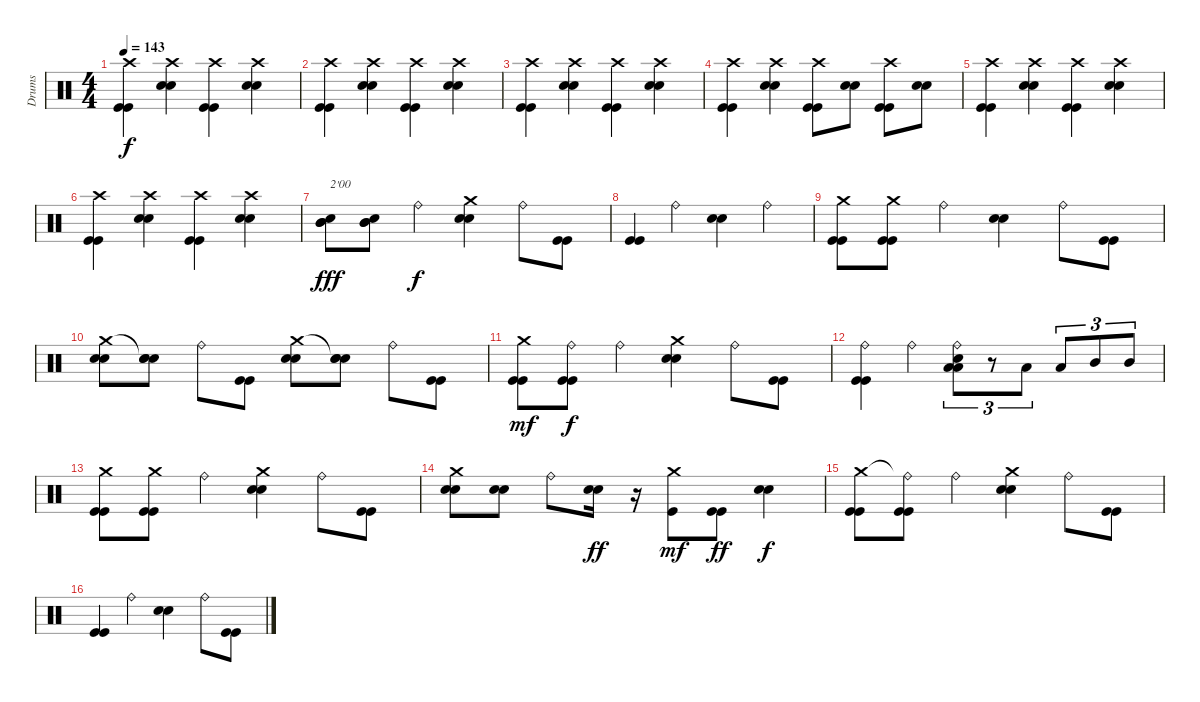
\track ("Drums" "Drums") {instrument percussion}
\staff {score}
\articulation defaults
\ts (4 4)
\tempo 143
\clef neutral
\ks c
("Crash high (hit)" "Kick (hit)" "Kick (hit)").4{dy f} ("Crash high (hit)" "Electric Snare (hit)" "Electric Snare (hit)").4 ("Crash high (hit)" "Kick (hit)" "Kick (hit)").4 ("Crash high (hit)" "Electric Snare (hit)" "Electric Snare (hit)").4 |
("Crash high (hit)" "Kick (hit)" "Kick (hit)").4 ("Crash high (hit)" "Electric Snare (hit)" "Electric Snare (hit)").4 ("Crash high (hit)" "Kick (hit)" "Kick (hit)").4 ("Crash high (hit)" "Electric Snare (hit)" "Electric Snare (hit)").4 |
("Crash high (hit)" "Kick (hit)" "Kick (hit)").4 ("Crash high (hit)" "Electric Snare (hit)" "Electric Snare (hit)").4 ("Crash high (hit)" "Kick (hit)" "Kick (hit)").4 ("Crash high (hit)" "Electric Snare (hit)" "Electric Snare (hit)").4 |
("Crash high (hit)" "Kick (hit)" "Kick (hit)").4 ("Crash high (hit)" "Electric Snare (hit)" "Electric Snare (hit)").4 ("Crash high (hit)" "Kick (hit)" "Kick (hit)").8 ("Electric Snare (hit)" "Electric Snare (hit)").8 ("Crash high (hit)" "Kick (hit)" "Kick (hit)").8 ("Electric Snare (hit)" "Electric Snare (hit)").8 |
("Crash high (hit)" "Kick (hit)" "Kick (hit)").4 ("Crash high (hit)" "Electric Snare (hit)" "Electric Snare (hit)").4 ("Crash high (hit)" "Kick (hit)" "Kick (hit)").4 ("Crash high (hit)" "Electric Snare (hit)" "Electric Snare (hit)").4 |
("Crash high (hit)" "Kick (hit)" "Kick (hit)").4 ("Crash high (hit)" "Electric Snare (hit)" "Electric Snare (hit)").4 ("Crash high (hit)" "Kick (hit)" "Kick (hit)").4 ("Crash high (hit)" "Electric Snare (hit)" "Electric Snare (hit)").4 |
("Electric Snare (hit)" "Mid Tom (hit)" "Mid Tom (hit)").8{txt "2'00" dy fff} ("Electric Snare (hit)" "Mid Tom (hit)" "Mid Tom (hit)").8 "Ride (bell)".4{dy f} ("Crash medium (hit)" "Electric Snare (hit)" "Electric Snare (hit)").4 "Ride (bell)".8 ("Kick (hit)" "Kick (hit)").8 |
("Kick (hit)" "Kick (hit)").4 "Ride (bell)".4 ("Electric Snare (hit)" "Electric Snare (hit)").4 "Ride (bell)".4 |
("Crash medium (hit)" "Kick (hit)" "Kick (hit)").8 ("Crash medium (hit)" "Kick (hit)" "Kick (hit)").8 "Ride (bell)".4 ("Electric Snare (hit)" "Electric Snare (hit)").4 "Ride (bell)".8 ("Kick (hit)" "Kick (hit)").8 |
("Crash medium (hit)" "Electric Snare (hit)" "Electric Snare (hit)").8 ("Snare (hit)"{t} "Electric Snare (hit)" "Electric Snare (hit)").8 "Ride (bell)".8 ("Kick (hit)" "Kick (hit)").8 ("Crash medium (hit)" "Electric Snare (hit)" "Electric Snare (hit)").8 ("Snare (hit)"{t} "Electric Snare (hit)" "Electric Snare (hit)").8 "Ride (bell)".8 ("Kick (hit)" "Kick (hit)").8 |
("Crash medium (hit)" "Kick (hit)" "Kick (hit)").8{dy mf} ("Ride (bell)" "Kick (hit)" "Kick (hit)").8{dy f} "Ride (bell)".4 ("Crash medium (hit)" "Electric Snare (hit)" "Electric Snare (hit)").4 "Ride (bell)".8 ("Kick (hit)" "Kick (hit)").8 |
("Ride (bell)" "Kick (hit)" "Kick (hit)").4 "Ride (bell)".4 ("Ride (bell)" "Electric Snare (hit)" "Low Tom (hit)" "Low Tom (hit)").8{tu (3 2)} r.8{tu (3 2)} "Low Tom (hit)".8{tu (3 2)} "Low Tom (hit)".8{tu (3 2)} "Mid Tom (hit)".8{tu (3 2)} "Mid Tom (hit)".8{tu (3 2)} |
("Crash medium (hit)" "Kick (hit)" "Kick (hit)").8 ("Crash medium (hit)" "Kick (hit)" "Kick (hit)").8 "Ride (bell)".4 ("Crash medium (hit)" "Electric Snare (hit)" "Electric Snare (hit)").4 "Ride (bell)".8 ("Kick (hit)" "Kick (hit)").8 |
("Crash medium (hit)" "Electric Snare (hit)" "Electric Snare (hit)").8 ("Electric Snare (hit)" "Electric Snare (hit)").8 "Ride (bell)".8 ("Electric Snare (hit)" "Electric Snare (hit)").16{dy ff} r.16 ("Crash medium (hit)" "Kick (hit)").8{dy mf} ("Kick (hit)" "Kick (hit)").8{dy ff} ("Electric Snare (hit)" "Electric Snare (hit)").4{dy f} |
("Crash medium (hit)" "Kick (hit)" "Kick (hit)").8 ("Ride (bell)"{t} "Kick (hit)" "Kick (hit)").8 "Ride (bell)".4 ("Crash medium (hit)" "Electric Snare (hit)" "Electric Snare (hit)").4 "Ride (bell)".8 ("Kick (hit)" "Kick (hit)").8 |
("Kick (hit)" "Kick (hit)").4 "Ride (bell)".4 ("Electric Snare (hit)" "Electric Snare (hit)").4 "Ride (bell)".8 ("Kick (hit)" "Kick (hit)").8
